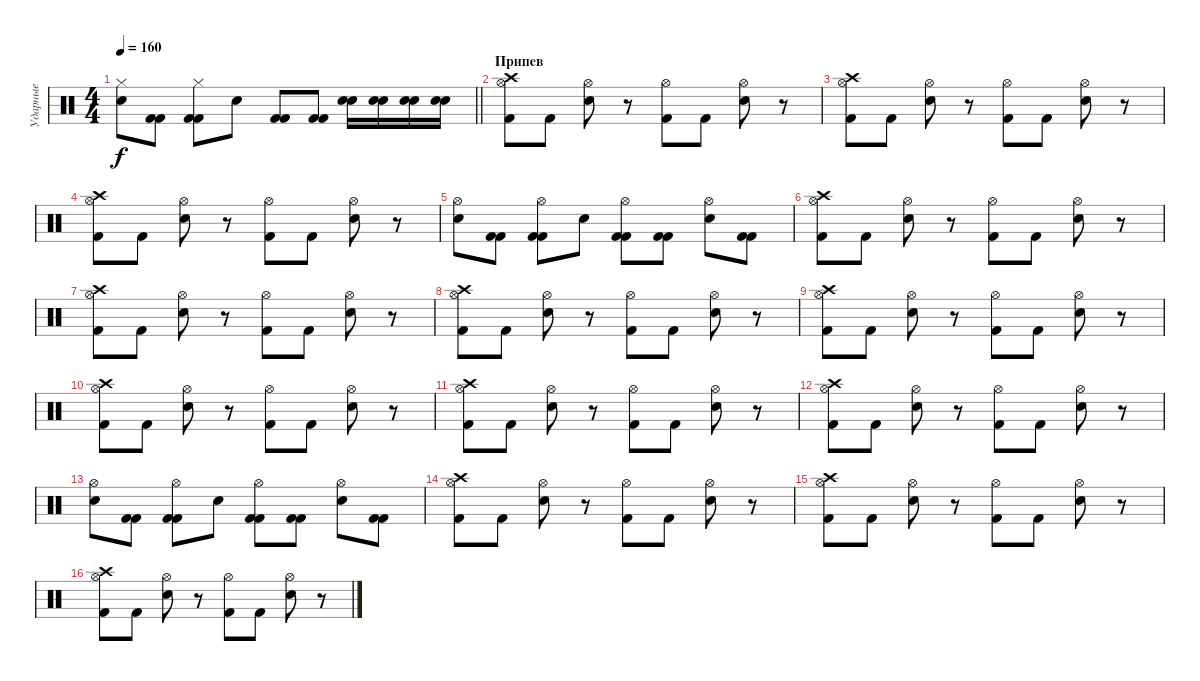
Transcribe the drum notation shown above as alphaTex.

\track ("Ударные" "Ударные") {instrument percussion}
\staff {score}
\articulation defaults
\ts (4 4)
\tempo 160
\clef neutral
\barLineRight lightlight
\ks c
("Snare (hit) 2" "Hi-Hat (closed)").8{dy f} ("Kick (hit) 2" "Kick (hit) 2").8 ("Kick (hit) 2" "Kick (hit) 2" "Hi-Hat (closed)").8 "Snare (hit) 2".8 ("Kick (hit) 2" "Kick (hit) 2").8 ("Kick (hit) 2" "Kick (hit) 2").8 ("Snare (hit) 2" "Snare (hit) 2").16 ("Snare (hit) 2" "Snare (hit) 2").16 ("Snare (hit) 2" "Snare (hit) 2").16 ("Snare (hit) 2" "Snare (hit) 2").16 |
\section ("" "Припев")
("Crash high (hit)" "Kick (hit) 2" "Hi-Hat (open)").8 "Kick (hit) 2".8 ("Snare (hit) 2" "Hi-Hat (open)").8 r.8 ("Kick (hit) 2" "Hi-Hat (open)").8 "Kick (hit) 2".8 ("Snare (hit) 2" "Hi-Hat (open)").8 r.8 |
("Crash high (hit)" "Kick (hit) 2" "Hi-Hat (open)").8 "Kick (hit) 2".8 ("Snare (hit) 2" "Hi-Hat (open)").8 r.8 ("Kick (hit) 2" "Hi-Hat (open)").8 "Kick (hit) 2".8 ("Snare (hit) 2" "Hi-Hat (open)").8 r.8 |
("Crash high (hit)" "Kick (hit) 2" "Hi-Hat (open)").8 "Kick (hit) 2".8 ("Snare (hit) 2" "Hi-Hat (open)").8 r.8 ("Kick (hit) 2" "Hi-Hat (open)").8 "Kick (hit) 2".8 ("Snare (hit) 2" "Hi-Hat (open)").8 r.8 |
("Hi-Hat (open)" "Snare (hit) 2").8 ("Kick (hit) 2" "Kick (hit) 2").8 ("Kick (hit) 2" "Hi-Hat (open)" "Kick (hit) 2").8 "Snare (hit) 2".8 ("Kick (hit) 2" "Hi-Hat (open)" "Kick (hit) 2").8 ("Kick (hit) 2" "Kick (hit) 2").8 ("Hi-Hat (open)" "Snare (hit) 2").8 ("Kick (hit) 2" "Kick (hit) 2").8 |
("Crash high (hit)" "Kick (hit) 2" "Hi-Hat (open)").8 "Kick (hit) 2".8 ("Snare (hit) 2" "Hi-Hat (open)").8 r.8 ("Kick (hit) 2" "Hi-Hat (open)").8 "Kick (hit) 2".8 ("Snare (hit) 2" "Hi-Hat (open)").8 r.8 |
("Crash high (hit)" "Kick (hit) 2" "Hi-Hat (open)").8 "Kick (hit) 2".8 ("Snare (hit) 2" "Hi-Hat (open)").8 r.8 ("Kick (hit) 2" "Hi-Hat (open)").8 "Kick (hit) 2".8 ("Snare (hit) 2" "Hi-Hat (open)").8 r.8 |
("Crash high (hit)" "Kick (hit) 2" "Hi-Hat (open)").8 "Kick (hit) 2".8 ("Snare (hit) 2" "Hi-Hat (open)").8 r.8 ("Kick (hit) 2" "Hi-Hat (open)").8 "Kick (hit) 2".8 ("Snare (hit) 2" "Hi-Hat (open)").8 r.8 |
("Crash high (hit)" "Kick (hit) 2" "Hi-Hat (open)").8 "Kick (hit) 2".8 ("Snare (hit) 2" "Hi-Hat (open)").8 r.8 ("Kick (hit) 2" "Hi-Hat (open)").8 "Kick (hit) 2".8 ("Snare (hit) 2" "Hi-Hat (open)").8 r.8 |
("Crash high (hit)" "Kick (hit) 2" "Hi-Hat (open)").8 "Kick (hit) 2".8 ("Snare (hit) 2" "Hi-Hat (open)").8 r.8 ("Kick (hit) 2" "Hi-Hat (open)").8 "Kick (hit) 2".8 ("Snare (hit) 2" "Hi-Hat (open)").8 r.8 |
("Crash high (hit)" "Kick (hit) 2" "Hi-Hat (open)").8 "Kick (hit) 2".8 ("Snare (hit) 2" "Hi-Hat (open)").8 r.8 ("Kick (hit) 2" "Hi-Hat (open)").8 "Kick (hit) 2".8 ("Snare (hit) 2" "Hi-Hat (open)").8 r.8 |
("Crash high (hit)" "Kick (hit) 2" "Hi-Hat (open)").8 "Kick (hit) 2".8 ("Snare (hit) 2" "Hi-Hat (open)").8 r.8 ("Kick (hit) 2" "Hi-Hat (open)").8 "Kick (hit) 2".8 ("Snare (hit) 2" "Hi-Hat (open)").8 r.8 |
("Hi-Hat (open)" "Snare (hit) 2").8 ("Kick (hit) 2" "Kick (hit) 2").8 ("Kick (hit) 2" "Hi-Hat (open)" "Kick (hit) 2").8 "Snare (hit) 2".8 ("Kick (hit) 2" "Hi-Hat (open)" "Kick (hit) 2").8 ("Kick (hit) 2" "Kick (hit) 2").8 ("Hi-Hat (open)" "Snare (hit) 2").8 ("Kick (hit) 2" "Kick (hit) 2").8 |
("Crash high (hit)" "Kick (hit) 2" "Hi-Hat (open)").8 "Kick (hit) 2".8 ("Snare (hit) 2" "Hi-Hat (open)").8 r.8 ("Kick (hit) 2" "Hi-Hat (open)").8 "Kick (hit) 2".8 ("Snare (hit) 2" "Hi-Hat (open)").8 r.8 |
("Crash high (hit)" "Kick (hit) 2" "Hi-Hat (open)").8 "Kick (hit) 2".8 ("Snare (hit) 2" "Hi-Hat (open)").8 r.8 ("Kick (hit) 2" "Hi-Hat (open)").8 "Kick (hit) 2".8 ("Snare (hit) 2" "Hi-Hat (open)").8 r.8 |
("Crash high (hit)" "Kick (hit) 2" "Hi-Hat (open)").8 "Kick (hit) 2".8 ("Snare (hit) 2" "Hi-Hat (open)").8 r.8 ("Kick (hit) 2" "Hi-Hat (open)").8 "Kick (hit) 2".8 ("Snare (hit) 2" "Hi-Hat (open)").8 r.8
